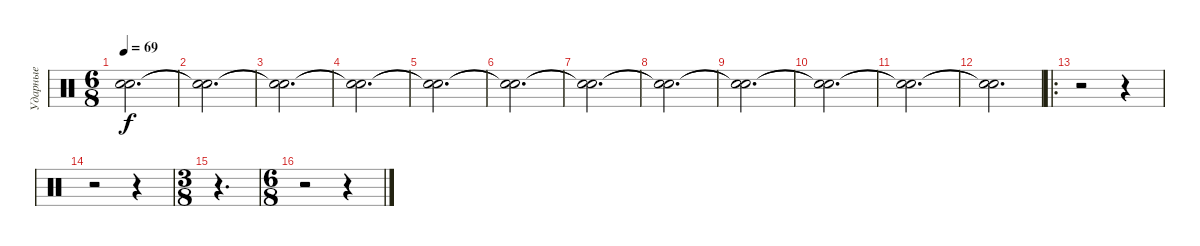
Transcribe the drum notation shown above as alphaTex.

\track ("Ударные" "Ударные") {instrument percussion}
\staff {score}
\articulation defaults
\ts (6 8)
\tempo 69
\clef neutral
\ks c
("Snare (hit)"{t} "Snare (hit)"{t}).2{d dy f} |
("Snare (hit)"{t} "Snare (hit)"{t}).2{d} |
("Snare (hit)"{t} "Snare (hit)"{t}).2{d} |
("Snare (hit)"{t} "Snare (hit)"{t}).2{d} |
("Snare (hit)"{t} "Snare (hit)"{t}).2{d} |
("Snare (hit)"{t} "Snare (hit)"{t}).2{d} |
("Snare (hit)"{t} "Snare (hit)"{t}).2{d} |
("Snare (hit)"{t} "Snare (hit)"{t}).2{d} |
("Snare (hit)"{t} "Snare (hit)"{t}).2{d} |
("Snare (hit)"{t} "Snare (hit)"{t}).2{d} |
("Snare (hit)"{t} "Snare (hit)"{t}).2{d} |
("Snare (hit)"{t} "Snare (hit)"{t}).2{d} |
\ro
r.2 r.4 |
r.2 r.4 |
\ts (3 8)
r.4{d} |
\ts (6 8)
r.2 r.4
